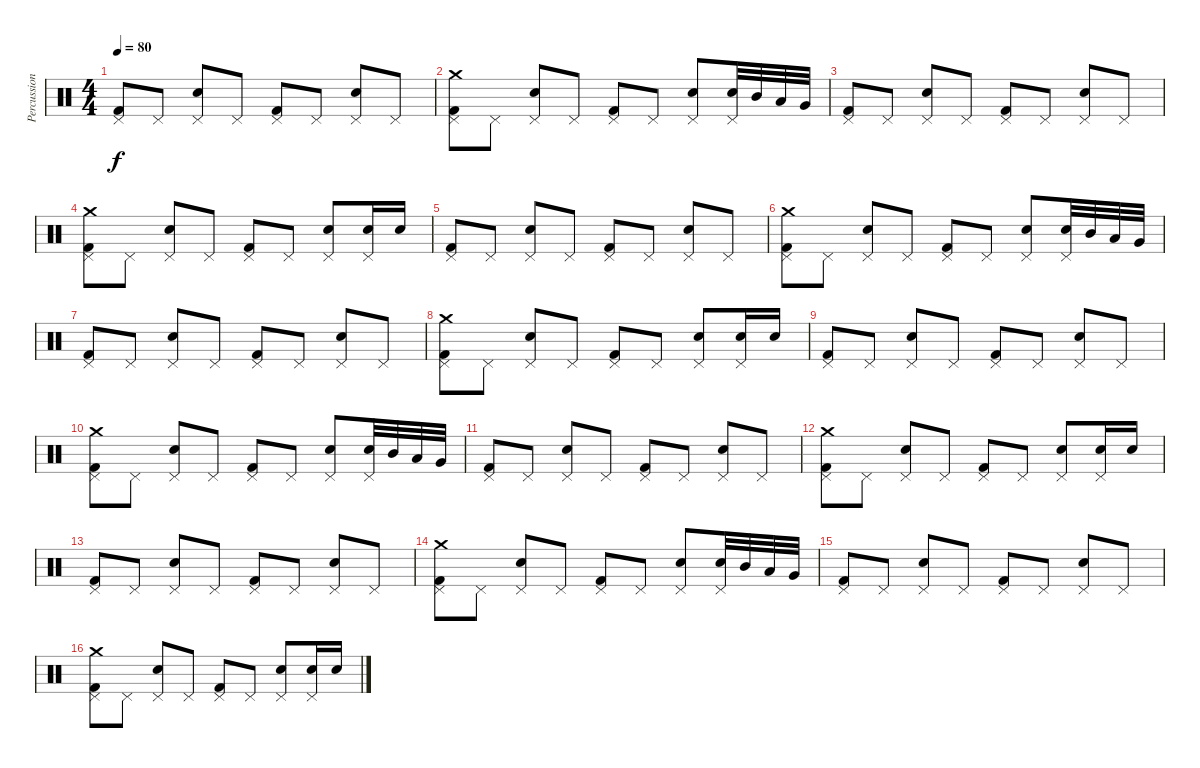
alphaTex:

\track ("Percussion" "Percussion") {instrument percussion}
\staff {score}
\articulation defaults
\ts (4 4)
\tempo 80
\clef neutral
\ks c
("Kick (hit) 2" "Pedal Hi-Hat (hit)").8{dy f} "Pedal Hi-Hat (hit)".8 ("Pedal Hi-Hat (hit)" "Electric Snare (hit)").8 "Pedal Hi-Hat (hit)".8 ("Pedal Hi-Hat (hit)" "Kick (hit) 2").8 "Pedal Hi-Hat (hit)".8 ("Pedal Hi-Hat (hit)" "Electric Snare (hit)").8 "Pedal Hi-Hat (hit)".8 |
("Pedal Hi-Hat (hit)" "Kick (hit) 2" "Crash medium (hit)").8 "Pedal Hi-Hat (hit)".8 ("Electric Snare (hit)" "Pedal Hi-Hat (hit)").8 "Pedal Hi-Hat (hit)".8 ("Pedal Hi-Hat (hit)" "Kick (hit) 2").8 "Pedal Hi-Hat (hit)".8 ("Pedal Hi-Hat (hit)" "Electric Snare (hit)").8 ("Pedal Hi-Hat (hit)" "Electric Snare (hit)").32 "Mid Tom (hit)".32 "Low Tom (hit)".32 "Very Low Tom (hit)".32 |
("Pedal Hi-Hat (hit)" "Kick (hit) 2").8 "Pedal Hi-Hat (hit)".8 ("Pedal Hi-Hat (hit)" "Electric Snare (hit)").8 "Pedal Hi-Hat (hit)".8 ("Kick (hit) 2" "Pedal Hi-Hat (hit)").8 "Pedal Hi-Hat (hit)".8 ("Electric Snare (hit)" "Pedal Hi-Hat (hit)").8 "Pedal Hi-Hat (hit)".8 |
("Kick (hit) 2" "Pedal Hi-Hat (hit)" "Crash medium (hit)").8 "Pedal Hi-Hat (hit)".8 ("Electric Snare (hit)" "Pedal Hi-Hat (hit)").8 "Pedal Hi-Hat (hit)".8 ("Kick (hit) 2" "Pedal Hi-Hat (hit)").8 "Pedal Hi-Hat (hit)".8 ("Electric Snare (hit)" "Pedal Hi-Hat (hit)").8 ("Electric Snare (hit)" "Pedal Hi-Hat (hit)").16 "Electric Snare (hit)".16 |
("Kick (hit) 2" "Pedal Hi-Hat (hit)").8 "Pedal Hi-Hat (hit)".8 ("Pedal Hi-Hat (hit)" "Electric Snare (hit)").8 "Pedal Hi-Hat (hit)".8 ("Pedal Hi-Hat (hit)" "Kick (hit) 2").8 "Pedal Hi-Hat (hit)".8 ("Pedal Hi-Hat (hit)" "Electric Snare (hit)").8 "Pedal Hi-Hat (hit)".8 |
("Pedal Hi-Hat (hit)" "Kick (hit) 2" "Crash medium (hit)").8 "Pedal Hi-Hat (hit)".8 ("Electric Snare (hit)" "Pedal Hi-Hat (hit)").8 "Pedal Hi-Hat (hit)".8 ("Pedal Hi-Hat (hit)" "Kick (hit) 2").8 "Pedal Hi-Hat (hit)".8 ("Pedal Hi-Hat (hit)" "Electric Snare (hit)").8 ("Pedal Hi-Hat (hit)" "Electric Snare (hit)").32 "Mid Tom (hit)".32 "Low Tom (hit)".32 "Very Low Tom (hit)".32 |
("Pedal Hi-Hat (hit)" "Kick (hit) 2").8 "Pedal Hi-Hat (hit)".8 ("Pedal Hi-Hat (hit)" "Electric Snare (hit)").8 "Pedal Hi-Hat (hit)".8 ("Kick (hit) 2" "Pedal Hi-Hat (hit)").8 "Pedal Hi-Hat (hit)".8 ("Electric Snare (hit)" "Pedal Hi-Hat (hit)").8 "Pedal Hi-Hat (hit)".8 |
("Kick (hit) 2" "Pedal Hi-Hat (hit)" "Crash medium (hit)").8 "Pedal Hi-Hat (hit)".8 ("Electric Snare (hit)" "Pedal Hi-Hat (hit)").8 "Pedal Hi-Hat (hit)".8 ("Kick (hit) 2" "Pedal Hi-Hat (hit)").8 "Pedal Hi-Hat (hit)".8 ("Electric Snare (hit)" "Pedal Hi-Hat (hit)").8 ("Electric Snare (hit)" "Pedal Hi-Hat (hit)").16 "Electric Snare (hit)".16 |
("Kick (hit) 2" "Pedal Hi-Hat (hit)").8 "Pedal Hi-Hat (hit)".8 ("Pedal Hi-Hat (hit)" "Electric Snare (hit)").8 "Pedal Hi-Hat (hit)".8 ("Pedal Hi-Hat (hit)" "Kick (hit) 2").8 "Pedal Hi-Hat (hit)".8 ("Pedal Hi-Hat (hit)" "Electric Snare (hit)").8 "Pedal Hi-Hat (hit)".8 |
("Pedal Hi-Hat (hit)" "Kick (hit) 2" "Crash medium (hit)").8 "Pedal Hi-Hat (hit)".8 ("Electric Snare (hit)" "Pedal Hi-Hat (hit)").8 "Pedal Hi-Hat (hit)".8 ("Pedal Hi-Hat (hit)" "Kick (hit) 2").8 "Pedal Hi-Hat (hit)".8 ("Pedal Hi-Hat (hit)" "Electric Snare (hit)").8 ("Pedal Hi-Hat (hit)" "Electric Snare (hit)").32 "Mid Tom (hit)".32 "Low Tom (hit)".32 "Very Low Tom (hit)".32 |
("Pedal Hi-Hat (hit)" "Kick (hit) 2").8 "Pedal Hi-Hat (hit)".8 ("Pedal Hi-Hat (hit)" "Electric Snare (hit)").8 "Pedal Hi-Hat (hit)".8 ("Kick (hit) 2" "Pedal Hi-Hat (hit)").8 "Pedal Hi-Hat (hit)".8 ("Electric Snare (hit)" "Pedal Hi-Hat (hit)").8 "Pedal Hi-Hat (hit)".8 |
("Kick (hit) 2" "Pedal Hi-Hat (hit)" "Crash medium (hit)").8 "Pedal Hi-Hat (hit)".8 ("Electric Snare (hit)" "Pedal Hi-Hat (hit)").8 "Pedal Hi-Hat (hit)".8 ("Kick (hit) 2" "Pedal Hi-Hat (hit)").8 "Pedal Hi-Hat (hit)".8 ("Electric Snare (hit)" "Pedal Hi-Hat (hit)").8 ("Electric Snare (hit)" "Pedal Hi-Hat (hit)").16 "Electric Snare (hit)".16 |
("Kick (hit) 2" "Pedal Hi-Hat (hit)").8 "Pedal Hi-Hat (hit)".8 ("Pedal Hi-Hat (hit)" "Electric Snare (hit)").8 "Pedal Hi-Hat (hit)".8 ("Pedal Hi-Hat (hit)" "Kick (hit) 2").8 "Pedal Hi-Hat (hit)".8 ("Pedal Hi-Hat (hit)" "Electric Snare (hit)").8 "Pedal Hi-Hat (hit)".8 |
("Pedal Hi-Hat (hit)" "Kick (hit) 2" "Crash medium (hit)").8 "Pedal Hi-Hat (hit)".8 ("Electric Snare (hit)" "Pedal Hi-Hat (hit)").8 "Pedal Hi-Hat (hit)".8 ("Pedal Hi-Hat (hit)" "Kick (hit) 2").8 "Pedal Hi-Hat (hit)".8 ("Pedal Hi-Hat (hit)" "Electric Snare (hit)").8 ("Pedal Hi-Hat (hit)" "Electric Snare (hit)").32 "Mid Tom (hit)".32 "Low Tom (hit)".32 "Very Low Tom (hit)".32 |
("Pedal Hi-Hat (hit)" "Kick (hit) 2").8 "Pedal Hi-Hat (hit)".8 ("Pedal Hi-Hat (hit)" "Electric Snare (hit)").8 "Pedal Hi-Hat (hit)".8 ("Kick (hit) 2" "Pedal Hi-Hat (hit)").8 "Pedal Hi-Hat (hit)".8 ("Electric Snare (hit)" "Pedal Hi-Hat (hit)").8 "Pedal Hi-Hat (hit)".8 |
("Kick (hit) 2" "Pedal Hi-Hat (hit)" "Crash medium (hit)").8 "Pedal Hi-Hat (hit)".8 ("Electric Snare (hit)" "Pedal Hi-Hat (hit)").8 "Pedal Hi-Hat (hit)".8 ("Kick (hit) 2" "Pedal Hi-Hat (hit)").8 "Pedal Hi-Hat (hit)".8 ("Electric Snare (hit)" "Pedal Hi-Hat (hit)").8 ("Electric Snare (hit)" "Pedal Hi-Hat (hit)").16 "Electric Snare (hit)".16
